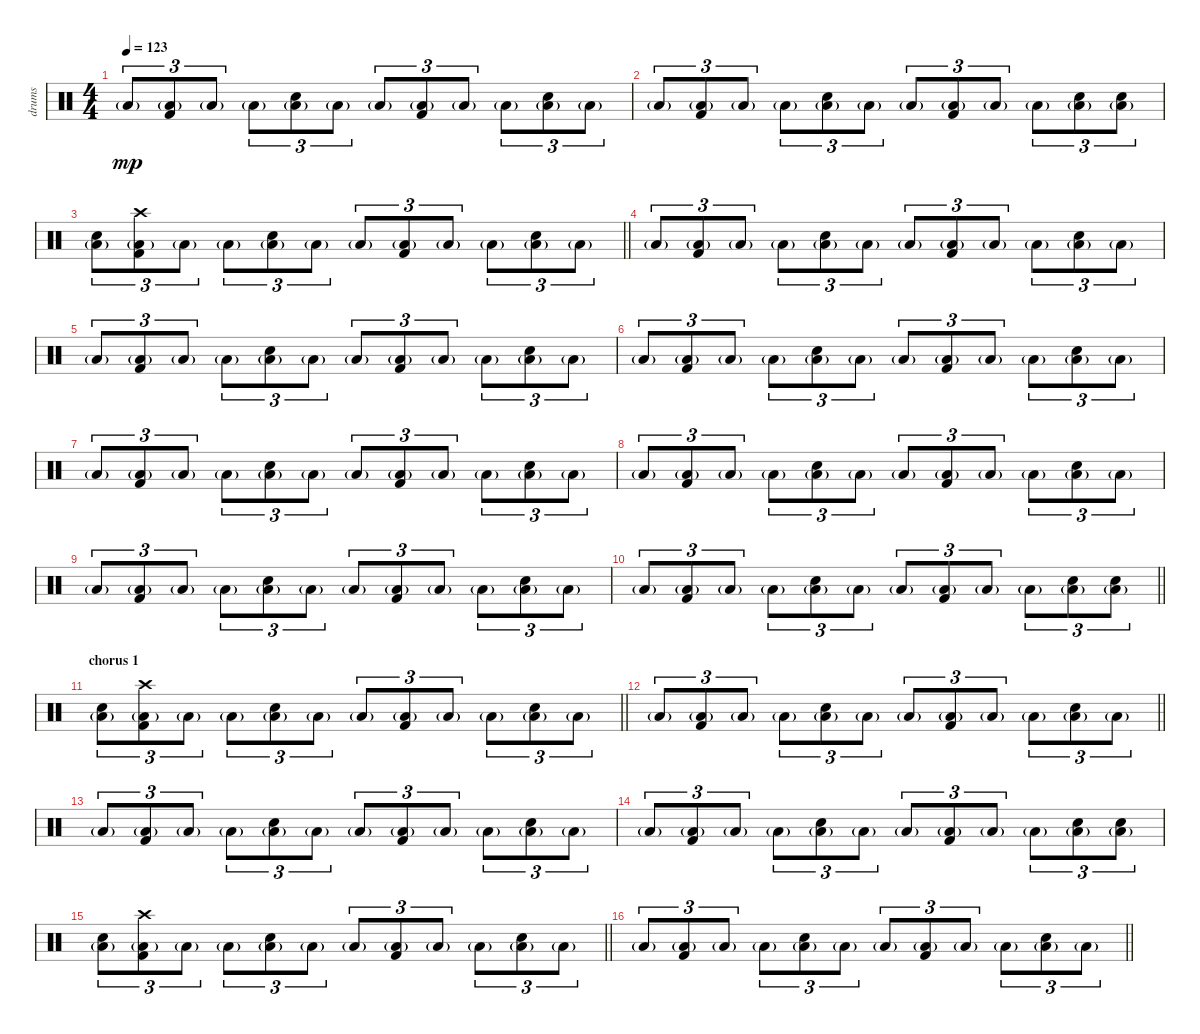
\track ("drums" "drums") {instrument percussion}
\staff {score}
\articulation defaults
\ts (4 4)
\tempo 123
\clef neutral
\ks c "Low Floor Tom (hit)"{g}.8{tu (3 2) dy mp}
("Low Floor Tom (hit)"{g} "Kick (hit) 2").8{tu (3 2)} "Low Floor Tom (hit)"{g}.8{tu (3 2)} "Low Floor Tom (hit)"{g}.8{tu (3 2)} ("Low Floor Tom (hit)"{g} "Electric Snare (hit)").8{tu (3 2)} "Low Floor Tom (hit)"{g}.8{tu (3 2)} "Low Floor Tom (hit)"{g}.8{tu (3 2)} ("Low Floor Tom (hit)"{g} "Kick (hit) 2").8{tu (3 2)} "Low Floor Tom (hit)"{g}.8{tu (3 2)} "Low Floor Tom (hit)"{g}.8{tu (3 2)} ("Low Floor Tom (hit)"{g} "Electric Snare (hit)").8{tu (3 2)} "Low Floor Tom (hit)"{g}.8{tu (3 2)} |
"Low Floor Tom (hit)"{g}.8{tu (3 2)} ("Low Floor Tom (hit)"{g} "Kick (hit) 2").8{tu (3 2)} "Low Floor Tom (hit)"{g}.8{tu (3 2)} "Low Floor Tom (hit)"{g}.8{tu (3 2)} ("Low Floor Tom (hit)"{g} "Electric Snare (hit)").8{tu (3 2)} "Low Floor Tom (hit)"{g}.8{tu (3 2)} "Low Floor Tom (hit)"{g}.8{tu (3 2)} ("Low Floor Tom (hit)"{g} "Kick (hit) 2").8{tu (3 2)} "Low Floor Tom (hit)"{g}.8{tu (3 2)} "Low Floor Tom (hit)"{g}.8{tu (3 2)} ("Low Floor Tom (hit)"{g} "Electric Snare (hit)").8{tu (3 2)} ("Low Floor Tom (hit)"{g} "Electric Snare (hit)").8{tu (3 2)} |
\barLineRight lightlight
("Low Floor Tom (hit)"{g} "Electric Snare (hit)").8{tu (3 2)} ("Low Floor Tom (hit)"{g} "Kick (hit) 2" "Crash high (hit)").8{tu (3 2)} "Low Floor Tom (hit)"{g}.8{tu (3 2)} "Low Floor Tom (hit)"{g}.8{tu (3 2)} ("Low Floor Tom (hit)"{g} "Electric Snare (hit)").8{tu (3 2)} "Low Floor Tom (hit)"{g}.8{tu (3 2)} "Low Floor Tom (hit)"{g}.8{tu (3 2)} ("Low Floor Tom (hit)"{g} "Kick (hit) 2").8{tu (3 2)} "Low Floor Tom (hit)"{g}.8{tu (3 2)} "Low Floor Tom (hit)"{g}.8{tu (3 2)} ("Low Floor Tom (hit)"{g} "Electric Snare (hit)").8{tu (3 2)} "Low Floor Tom (hit)"{g}.8{tu (3 2)} |
"Low Floor Tom (hit)"{g}.8{tu (3 2)} ("Low Floor Tom (hit)"{g} "Kick (hit) 2").8{tu (3 2)} "Low Floor Tom (hit)"{g}.8{tu (3 2)} "Low Floor Tom (hit)"{g}.8{tu (3 2)} ("Low Floor Tom (hit)"{g} "Electric Snare (hit)").8{tu (3 2)} "Low Floor Tom (hit)"{g}.8{tu (3 2)} "Low Floor Tom (hit)"{g}.8{tu (3 2)} ("Low Floor Tom (hit)"{g} "Kick (hit) 2").8{tu (3 2)} "Low Floor Tom (hit)"{g}.8{tu (3 2)} "Low Floor Tom (hit)"{g}.8{tu (3 2)} ("Low Floor Tom (hit)"{g} "Electric Snare (hit)").8{tu (3 2)} "Low Floor Tom (hit)"{g}.8{tu (3 2)} |
"Low Floor Tom (hit)"{g}.8{tu (3 2)} ("Low Floor Tom (hit)"{g} "Kick (hit) 2").8{tu (3 2)} "Low Floor Tom (hit)"{g}.8{tu (3 2)} "Low Floor Tom (hit)"{g}.8{tu (3 2)} ("Low Floor Tom (hit)"{g} "Electric Snare (hit)").8{tu (3 2)} "Low Floor Tom (hit)"{g}.8{tu (3 2)} "Low Floor Tom (hit)"{g}.8{tu (3 2)} ("Low Floor Tom (hit)"{g} "Kick (hit) 2").8{tu (3 2)} "Low Floor Tom (hit)"{g}.8{tu (3 2)} "Low Floor Tom (hit)"{g}.8{tu (3 2)} ("Low Floor Tom (hit)"{g} "Electric Snare (hit)").8{tu (3 2)} "Low Floor Tom (hit)"{g}.8{tu (3 2)} |
"Low Floor Tom (hit)"{g}.8{tu (3 2)} ("Low Floor Tom (hit)"{g} "Kick (hit) 2").8{tu (3 2)} "Low Floor Tom (hit)"{g}.8{tu (3 2)} "Low Floor Tom (hit)"{g}.8{tu (3 2)} ("Low Floor Tom (hit)"{g} "Electric Snare (hit)").8{tu (3 2)} "Low Floor Tom (hit)"{g}.8{tu (3 2)} "Low Floor Tom (hit)"{g}.8{tu (3 2)} ("Low Floor Tom (hit)"{g} "Kick (hit) 2").8{tu (3 2)} "Low Floor Tom (hit)"{g}.8{tu (3 2)} "Low Floor Tom (hit)"{g}.8{tu (3 2)} ("Low Floor Tom (hit)"{g} "Electric Snare (hit)").8{tu (3 2)} "Low Floor Tom (hit)"{g}.8{tu (3 2)} |
"Low Floor Tom (hit)"{g}.8{tu (3 2)} ("Low Floor Tom (hit)"{g} "Kick (hit) 2").8{tu (3 2)} "Low Floor Tom (hit)"{g}.8{tu (3 2)} "Low Floor Tom (hit)"{g}.8{tu (3 2)} ("Low Floor Tom (hit)"{g} "Electric Snare (hit)").8{tu (3 2)} "Low Floor Tom (hit)"{g}.8{tu (3 2)} "Low Floor Tom (hit)"{g}.8{tu (3 2)} ("Low Floor Tom (hit)"{g} "Kick (hit) 2").8{tu (3 2)} "Low Floor Tom (hit)"{g}.8{tu (3 2)} "Low Floor Tom (hit)"{g}.8{tu (3 2)} ("Low Floor Tom (hit)"{g} "Electric Snare (hit)").8{tu (3 2)} "Low Floor Tom (hit)"{g}.8{tu (3 2)} |
"Low Floor Tom (hit)"{g}.8{tu (3 2)} ("Low Floor Tom (hit)"{g} "Kick (hit) 2").8{tu (3 2)} "Low Floor Tom (hit)"{g}.8{tu (3 2)} "Low Floor Tom (hit)"{g}.8{tu (3 2)} ("Low Floor Tom (hit)"{g} "Electric Snare (hit)").8{tu (3 2)} "Low Floor Tom (hit)"{g}.8{tu (3 2)} "Low Floor Tom (hit)"{g}.8{tu (3 2)} ("Low Floor Tom (hit)"{g} "Kick (hit) 2").8{tu (3 2)} "Low Floor Tom (hit)"{g}.8{tu (3 2)} "Low Floor Tom (hit)"{g}.8{tu (3 2)} ("Low Floor Tom (hit)"{g} "Electric Snare (hit)").8{tu (3 2)} "Low Floor Tom (hit)"{g}.8{tu (3 2)} |
"Low Floor Tom (hit)"{g}.8{tu (3 2)} ("Low Floor Tom (hit)"{g} "Kick (hit) 2").8{tu (3 2)} "Low Floor Tom (hit)"{g}.8{tu (3 2)} "Low Floor Tom (hit)"{g}.8{tu (3 2)} ("Low Floor Tom (hit)"{g} "Electric Snare (hit)").8{tu (3 2)} "Low Floor Tom (hit)"{g}.8{tu (3 2)} "Low Floor Tom (hit)"{g}.8{tu (3 2)} ("Low Floor Tom (hit)"{g} "Kick (hit) 2").8{tu (3 2)} "Low Floor Tom (hit)"{g}.8{tu (3 2)} "Low Floor Tom (hit)"{g}.8{tu (3 2)} ("Low Floor Tom (hit)"{g} "Electric Snare (hit)").8{tu (3 2)} "Low Floor Tom (hit)"{g}.8{tu (3 2)} |
\barLineRight lightlight "Low Floor Tom (hit)"{g}.8{tu (3 2)}
("Low Floor Tom (hit)"{g} "Kick (hit) 2").8{tu (3 2)} "Low Floor Tom (hit)"{g}.8{tu (3 2)} "Low Floor Tom (hit)"{g}.8{tu (3 2)} ("Low Floor Tom (hit)"{g} "Electric Snare (hit)").8{tu (3 2)} "Low Floor Tom (hit)"{g}.8{tu (3 2)} "Low Floor Tom (hit)"{g}.8{tu (3 2)} ("Low Floor Tom (hit)"{g} "Kick (hit) 2").8{tu (3 2)} "Low Floor Tom (hit)"{g}.8{tu (3 2)} "Low Floor Tom (hit)"{g}.8{tu (3 2)} ("Low Floor Tom (hit)"{g} "Electric Snare (hit)").8{tu (3 2)} ("Low Floor Tom (hit)"{g} "Electric Snare (hit)").8{tu (3 2)} |
\section ("" "chorus 1")
\barLineRight lightlight
("Low Floor Tom (hit)"{g} "Electric Snare (hit)").8{tu (3 2)} ("Low Floor Tom (hit)"{g} "Kick (hit) 2" "Crash high (hit)").8{tu (3 2)} "Low Floor Tom (hit)"{g}.8{tu (3 2)} "Low Floor Tom (hit)"{g}.8{tu (3 2)} ("Low Floor Tom (hit)"{g} "Electric Snare (hit)").8{tu (3 2)} "Low Floor Tom (hit)"{g}.8{tu (3 2)} "Low Floor Tom (hit)"{g}.8{tu (3 2)} ("Low Floor Tom (hit)"{g} "Kick (hit) 2").8{tu (3 2)} "Low Floor Tom (hit)"{g}.8{tu (3 2)} "Low Floor Tom (hit)"{g}.8{tu (3 2)} ("Low Floor Tom (hit)"{g} "Electric Snare (hit)").8{tu (3 2)} "Low Floor Tom (hit)"{g}.8{tu (3 2)} |
\barLineRight lightlight "Low Floor Tom (hit)"{g}.8{tu (3 2)}
("Low Floor Tom (hit)"{g} "Kick (hit) 2").8{tu (3 2)} "Low Floor Tom (hit)"{g}.8{tu (3 2)} "Low Floor Tom (hit)"{g}.8{tu (3 2)} ("Low Floor Tom (hit)"{g} "Electric Snare (hit)").8{tu (3 2)} "Low Floor Tom (hit)"{g}.8{tu (3 2)} "Low Floor Tom (hit)"{g}.8{tu (3 2)} ("Low Floor Tom (hit)"{g} "Kick (hit) 2").8{tu (3 2)} "Low Floor Tom (hit)"{g}.8{tu (3 2)} "Low Floor Tom (hit)"{g}.8{tu (3 2)} ("Low Floor Tom (hit)"{g} "Electric Snare (hit)").8{tu (3 2)} "Low Floor Tom (hit)"{g}.8{tu (3 2)} |
"Low Floor Tom (hit)"{g}.8{tu (3 2)} ("Low Floor Tom (hit)"{g} "Kick (hit) 2").8{tu (3 2)} "Low Floor Tom (hit)"{g}.8{tu (3 2)} "Low Floor Tom (hit)"{g}.8{tu (3 2)} ("Low Floor Tom (hit)"{g} "Electric Snare (hit)").8{tu (3 2)} "Low Floor Tom (hit)"{g}.8{tu (3 2)} "Low Floor Tom (hit)"{g}.8{tu (3 2)} ("Low Floor Tom (hit)"{g} "Kick (hit) 2").8{tu (3 2)} "Low Floor Tom (hit)"{g}.8{tu (3 2)} "Low Floor Tom (hit)"{g}.8{tu (3 2)} ("Low Floor Tom (hit)"{g} "Electric Snare (hit)").8{tu (3 2)} "Low Floor Tom (hit)"{g}.8{tu (3 2)} |
"Low Floor Tom (hit)"{g}.8{tu (3 2)} ("Low Floor Tom (hit)"{g} "Kick (hit) 2").8{tu (3 2)} "Low Floor Tom (hit)"{g}.8{tu (3 2)} "Low Floor Tom (hit)"{g}.8{tu (3 2)} ("Low Floor Tom (hit)"{g} "Electric Snare (hit)").8{tu (3 2)} "Low Floor Tom (hit)"{g}.8{tu (3 2)} "Low Floor Tom (hit)"{g}.8{tu (3 2)} ("Low Floor Tom (hit)"{g} "Kick (hit) 2").8{tu (3 2)} "Low Floor Tom (hit)"{g}.8{tu (3 2)} "Low Floor Tom (hit)"{g}.8{tu (3 2)} ("Low Floor Tom (hit)"{g} "Electric Snare (hit)").8{tu (3 2)} ("Low Floor Tom (hit)"{g} "Electric Snare (hit)").8{tu (3 2)} |
\barLineRight lightlight
("Low Floor Tom (hit)"{g} "Electric Snare (hit)").8{tu (3 2)} ("Low Floor Tom (hit)"{g} "Kick (hit) 2" "Crash high (hit)").8{tu (3 2)} "Low Floor Tom (hit)"{g}.8{tu (3 2)} "Low Floor Tom (hit)"{g}.8{tu (3 2)} ("Low Floor Tom (hit)"{g} "Electric Snare (hit)").8{tu (3 2)} "Low Floor Tom (hit)"{g}.8{tu (3 2)} "Low Floor Tom (hit)"{g}.8{tu (3 2)} ("Low Floor Tom (hit)"{g} "Kick (hit) 2").8{tu (3 2)} "Low Floor Tom (hit)"{g}.8{tu (3 2)} "Low Floor Tom (hit)"{g}.8{tu (3 2)} ("Low Floor Tom (hit)"{g} "Electric Snare (hit)").8{tu (3 2)} "Low Floor Tom (hit)"{g}.8{tu (3 2)} |
\barLineRight lightlight "Low Floor Tom (hit)"{g}.8{tu (3 2)}
("Low Floor Tom (hit)"{g} "Kick (hit) 2").8{tu (3 2)} "Low Floor Tom (hit)"{g}.8{tu (3 2)} "Low Floor Tom (hit)"{g}.8{tu (3 2)} ("Low Floor Tom (hit)"{g} "Electric Snare (hit)").8{tu (3 2)} "Low Floor Tom (hit)"{g}.8{tu (3 2)} "Low Floor Tom (hit)"{g}.8{tu (3 2)} ("Low Floor Tom (hit)"{g} "Kick (hit) 2").8{tu (3 2)} "Low Floor Tom (hit)"{g}.8{tu (3 2)} "Low Floor Tom (hit)"{g}.8{tu (3 2)} ("Low Floor Tom (hit)"{g} "Electric Snare (hit)").8{tu (3 2)} "Low Floor Tom (hit)"{g}.8{tu (3 2)}
